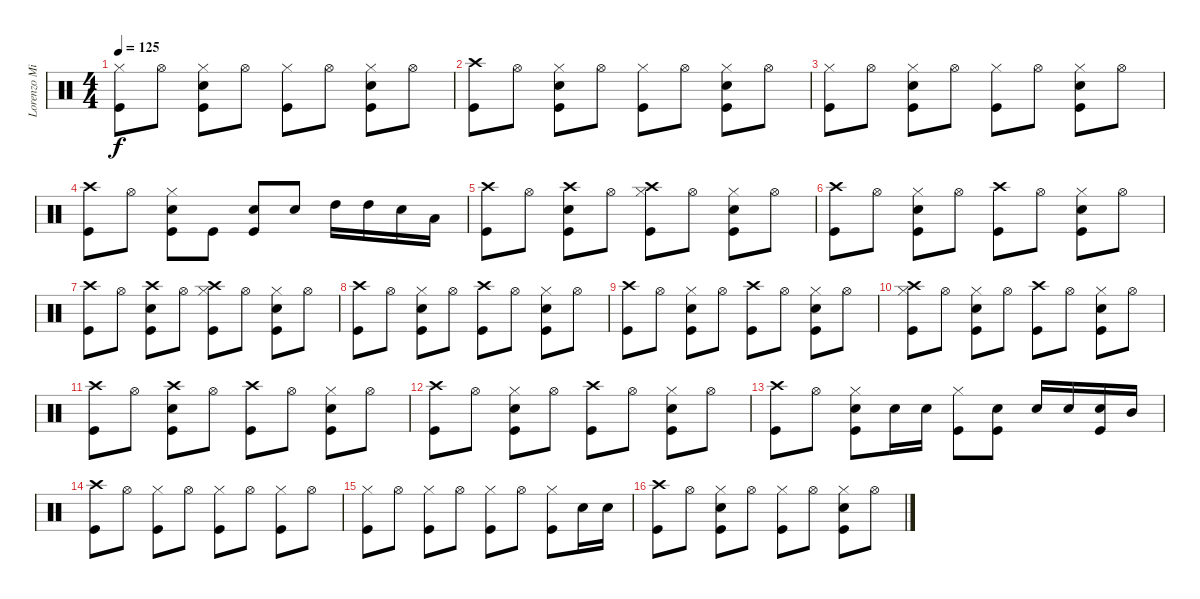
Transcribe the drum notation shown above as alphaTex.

\track ("Lorenzo Milani - drums" "Lorenzo Mi") {instrument percussion}
\staff {score}
\articulation defaults
\ts (4 4)
\tempo 125
\clef neutral
\ks c
("Hi-Hat (closed)" "Kick (hit)").8{dy f} "Hi-Hat (open)".8 ("Electric Snare (hit)" "Hi-Hat (closed)" "Kick (hit)").8 "Hi-Hat (open)".8 ("Hi-Hat (closed)" "Kick (hit)").8 "Hi-Hat (open)".8 ("Electric Snare (hit)" "Hi-Hat (closed)" "Kick (hit)").8 "Hi-Hat (open)".8 |
("Crash high (hit)" "Kick (hit)").8 "Hi-Hat (open)".8 ("Electric Snare (hit)" "Hi-Hat (closed)" "Kick (hit)").8 "Hi-Hat (open)".8 ("Hi-Hat (closed)" "Kick (hit)").8 "Hi-Hat (open)".8 ("Electric Snare (hit)" "Hi-Hat (closed)" "Kick (hit)").8 "Hi-Hat (open)".8 |
("Hi-Hat (closed)" "Kick (hit)").8 "Hi-Hat (open)".8 ("Electric Snare (hit)" "Hi-Hat (closed)" "Kick (hit)").8 "Hi-Hat (open)".8 ("Hi-Hat (closed)" "Kick (hit)").8 "Hi-Hat (open)".8 ("Electric Snare (hit)" "Hi-Hat (closed)" "Kick (hit)").8 "Hi-Hat (open)".8 |
("Crash high (hit)" "Kick (hit)").8 "Hi-Hat (open)".8 ("Electric Snare (hit)" "Hi-Hat (closed)" "Kick (hit)").8 "Kick (hit)".8 ("Electric Snare (hit)" "Kick (hit)").8 "Electric Snare (hit)".8 "High Tom (hit)".16 "High Tom (hit)".16 "Electric Snare (hit)".16 "Low Tom (hit)".16 |
("Crash high (hit)" "Kick (hit)").8 "Hi-Hat (open)".8 ("Crash high (hit)" "Electric Snare (hit)" "Kick (hit)").8 "Hi-Hat (open)".8 ("Crash high (hit)" "Hi-Hat (closed)" "Kick (hit)").8 "Hi-Hat (open)".8 ("Electric Snare (hit)" "Hi-Hat (closed)" "Kick (hit)").8 "Hi-Hat (open)".8 |
("Crash high (hit)" "Kick (hit)").8 "Hi-Hat (open)".8 ("Electric Snare (hit)" "Hi-Hat (closed)" "Kick (hit)").8 "Hi-Hat (open)".8 ("Crash high (hit)" "Kick (hit)").8 "Hi-Hat (open)".8 ("Electric Snare (hit)" "Hi-Hat (closed)" "Kick (hit)").8 "Hi-Hat (open)".8 |
("Crash high (hit)" "Kick (hit)").8 "Hi-Hat (open)".8 ("Crash high (hit)" "Electric Snare (hit)" "Kick (hit)").8 "Hi-Hat (open)".8 ("Crash high (hit)" "Hi-Hat (closed)" "Kick (hit)").8 "Hi-Hat (open)".8 ("Electric Snare (hit)" "Hi-Hat (closed)" "Kick (hit)").8 "Hi-Hat (open)".8 |
("Crash high (hit)" "Kick (hit)").8 "Hi-Hat (open)".8 ("Electric Snare (hit)" "Hi-Hat (closed)" "Kick (hit)").8 "Hi-Hat (open)".8 ("Crash high (hit)" "Kick (hit)").8 "Hi-Hat (open)".8 ("Electric Snare (hit)" "Hi-Hat (closed)" "Kick (hit)").8 "Hi-Hat (open)".8 |
("Crash high (hit)" "Kick (hit)").8 "Hi-Hat (open)".8 ("Electric Snare (hit)" "Hi-Hat (closed)" "Kick (hit)").8 "Hi-Hat (open)".8 ("Crash high (hit)" "Kick (hit)").8 "Hi-Hat (open)".8 ("Electric Snare (hit)" "Hi-Hat (closed)" "Kick (hit)").8 "Hi-Hat (open)".8 |
("Crash high (hit)" "Hi-Hat (closed)" "Kick (hit)").8 "Hi-Hat (open)".8 ("Electric Snare (hit)" "Hi-Hat (closed)" "Kick (hit)").8 "Hi-Hat (open)".8 ("Crash high (hit)" "Kick (hit)").8 "Hi-Hat (open)".8 ("Electric Snare (hit)" "Hi-Hat (closed)" "Kick (hit)").8 "Hi-Hat (open)".8 |
("Crash high (hit)" "Kick (hit)").8 "Hi-Hat (open)".8 ("Crash high (hit)" "Electric Snare (hit)" "Kick (hit)").8 "Hi-Hat (open)".8 ("Crash high (hit)" "Kick (hit)").8 "Hi-Hat (open)".8 ("Electric Snare (hit)" "Hi-Hat (closed)" "Kick (hit)").8 "Hi-Hat (open)".8 |
("Crash high (hit)" "Kick (hit)").8 "Hi-Hat (open)".8 ("Electric Snare (hit)" "Hi-Hat (closed)" "Kick (hit)").8 "Hi-Hat (open)".8 ("Crash high (hit)" "Kick (hit)").8 "Hi-Hat (open)".8 ("Electric Snare (hit)" "Hi-Hat (closed)" "Kick (hit)").8 "Hi-Hat (open)".8 |
("Crash high (hit)" "Kick (hit)").8 "Hi-Hat (open)".8 ("Electric Snare (hit)" "Hi-Hat (closed)" "Kick (hit)").8 "Electric Snare (hit)".16 "Electric Snare (hit)".16 ("Hi-Hat (closed)" "Kick (hit)").8 ("Electric Snare (hit)" "Kick (hit)").8 "Electric Snare (hit)".16 "Electric Snare (hit)".16 ("Electric Snare (hit)" "Kick (hit)").16 "Mid Tom (hit)".16 |
("Crash high (hit)" "Kick (hit)").8 "Hi-Hat (open)".8 ("Hi-Hat (closed)" "Kick (hit)").8 "Hi-Hat (open)".8 ("Hi-Hat (closed)" "Kick (hit)").8 "Hi-Hat (open)".8 ("Hi-Hat (closed)" "Kick (hit)").8 "Hi-Hat (open)".8 |
("Hi-Hat (closed)" "Kick (hit)").8 "Hi-Hat (open)".8 ("Hi-Hat (closed)" "Kick (hit)").8 "Hi-Hat (open)".8 ("Hi-Hat (closed)" "Kick (hit)").8 "Hi-Hat (open)".8 ("Hi-Hat (closed)" "Kick (hit)").8 "Electric Snare (hit)".16 "Electric Snare (hit)".16 |
("Crash high (hit)" "Kick (hit)").8 "Hi-Hat (open)".8 ("Electric Snare (hit)" "Hi-Hat (closed)" "Kick (hit)").8 "Hi-Hat (open)".8 ("Hi-Hat (closed)" "Kick (hit)").8 "Hi-Hat (open)".8 ("Electric Snare (hit)" "Hi-Hat (closed)" "Kick (hit)").8 "Hi-Hat (open)".8
